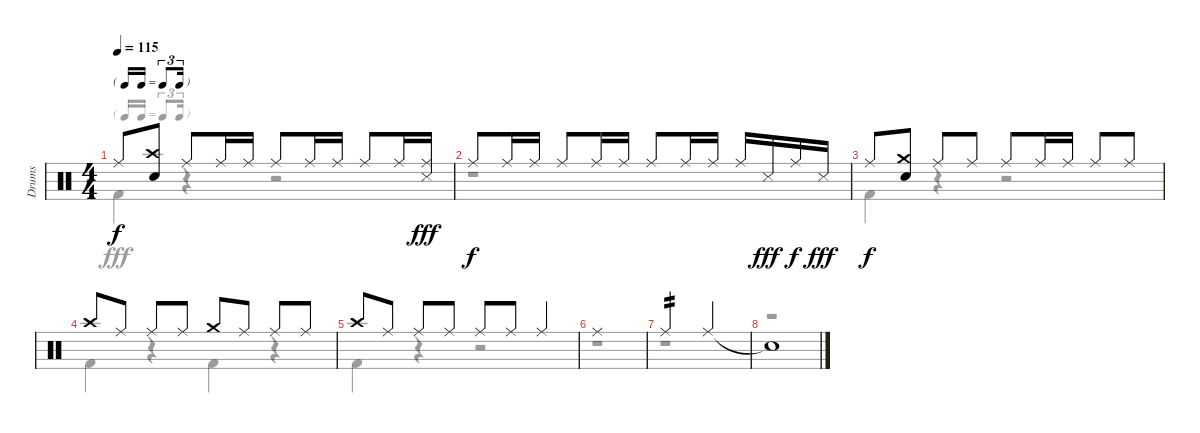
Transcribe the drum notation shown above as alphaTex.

\track ("Drums" "Drums") {instrument percussion}
\staff {score}
\articulation defaults
\voice
\ts (4 4)
\tf triplet16th
\tempo 115
\clef neutral
\ks c "Ride (middle)".8{dy f}
("Crash high (hit)" "Snare (hit) 2").8 "Ride (middle)".8 "Ride (middle)".16 "Ride (middle)".16 "Ride (middle)".8 "Ride (middle)".16 "Ride (middle)".16 "Ride (middle)".8 "Ride (middle)".16 ("Ride (middle)" "Snare (side stick) 3").16{dy fff} |
"Ride (middle)".8{dy f} "Ride (middle)".16 "Ride (middle)".16 "Ride (middle)".8 "Ride (middle)".16 "Ride (middle)".16 "Ride (middle)".8 "Ride (middle)".16 "Ride (middle)".16 "Ride (middle)".16 "Snare (side stick) 3".16{dy fff} "Ride (middle)".16{dy f} "Snare (side stick) 3".16{dy fff} |
"Ride (middle)".8{dy f} ("Crash medium (hit)" "Snare (hit) 2").8 "Ride (middle)".8 "Ride (middle)".8 "Ride (middle)".8 "Ride (middle)".16 "Ride (middle)".16 "Ride (middle)".8 "Ride (middle)".8 |
"Crash high (hit)".8 "Ride (middle)".8 "Ride (middle)".8 "Ride (middle)".8 "Crash medium (hit)".8 "Ride (middle)".8 "Ride (middle)".8 "Ride (middle)".8 |
"Crash high (hit)".8 "Ride (middle)".8 "Ride (middle)".8 "Ride (middle)".8 "Ride (middle)".8 "Ride (middle)".8 "Ride (middle)".4 |
"Ride (middle)".1 |
"Ride (middle)".2{tp 2} "Ride (middle)".2 |
"Snare (hit)"{t}.1
\voice
\clef neutral
\ottava regular
\simile none
\ks c "Kick (hit) 2".4{dy fff}
r.4 r.2 |
r.1 |
"Kick (hit) 2".4 r.4 r.2 |
"Kick (hit) 2".4 r.4 "Kick (hit) 2".4 r.4 |
"Kick (hit) 2".4 r.4 r.2 |
r.1 |
r.1 |
r.1
